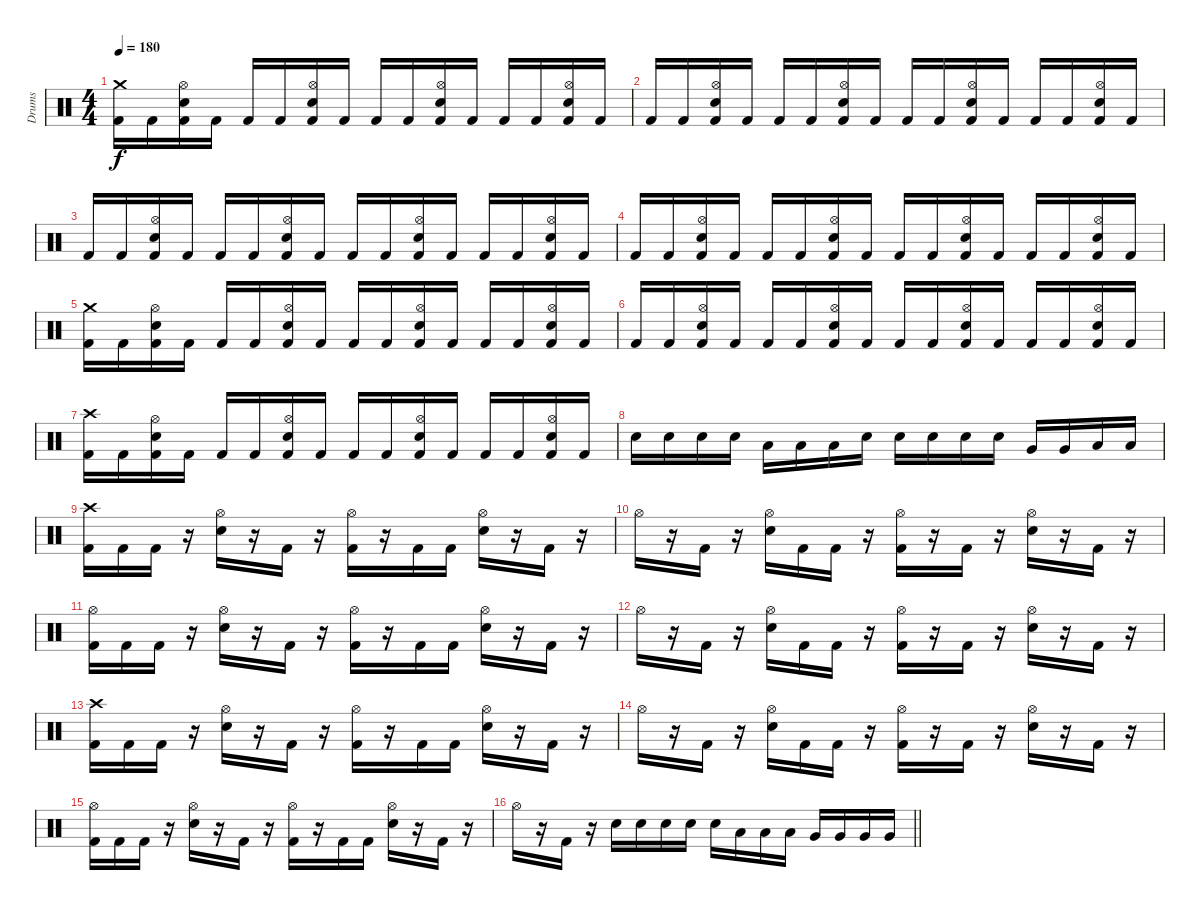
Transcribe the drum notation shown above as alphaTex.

\track ("Drums" "Drums") {instrument percussion}
\staff {score}
\articulation defaults
\ts (4 4)
\tempo 180
\clef neutral
\ks c
("Crash medium (hit)" "Kick (hit) 2").16{dy f} "Kick (hit) 2".16 ("Hi-Hat (open)" "Electric Snare (hit)" "Kick (hit) 2").16 "Kick (hit) 2".16 "Kick (hit) 2".16 "Kick (hit) 2".16 ("Hi-Hat (open)" "Electric Snare (hit)" "Kick (hit) 2").16 "Kick (hit) 2".16 "Kick (hit) 2".16 "Kick (hit) 2".16 ("Hi-Hat (open)" "Electric Snare (hit)" "Kick (hit) 2").16 "Kick (hit) 2".16 "Kick (hit) 2".16 "Kick (hit) 2".16 ("Hi-Hat (open)" "Electric Snare (hit)" "Kick (hit) 2").16 "Kick (hit) 2".16 |
"Kick (hit) 2".16 "Kick (hit) 2".16 ("Hi-Hat (open)" "Electric Snare (hit)" "Kick (hit) 2").16 "Kick (hit) 2".16 "Kick (hit) 2".16 "Kick (hit) 2".16 ("Hi-Hat (open)" "Electric Snare (hit)" "Kick (hit) 2").16 "Kick (hit) 2".16 "Kick (hit) 2".16 "Kick (hit) 2".16 ("Hi-Hat (open)" "Electric Snare (hit)" "Kick (hit) 2").16 "Kick (hit) 2".16 "Kick (hit) 2".16 "Kick (hit) 2".16 ("Hi-Hat (open)" "Electric Snare (hit)" "Kick (hit) 2").16 "Kick (hit) 2".16 |
"Kick (hit) 2".16 "Kick (hit) 2".16 ("Hi-Hat (open)" "Electric Snare (hit)" "Kick (hit) 2").16 "Kick (hit) 2".16 "Kick (hit) 2".16 "Kick (hit) 2".16 ("Hi-Hat (open)" "Electric Snare (hit)" "Kick (hit) 2").16 "Kick (hit) 2".16 "Kick (hit) 2".16 "Kick (hit) 2".16 ("Hi-Hat (open)" "Electric Snare (hit)" "Kick (hit) 2").16 "Kick (hit) 2".16 "Kick (hit) 2".16 "Kick (hit) 2".16 ("Hi-Hat (open)" "Electric Snare (hit)" "Kick (hit) 2").16 "Kick (hit) 2".16 |
"Kick (hit) 2".16 "Kick (hit) 2".16 ("Hi-Hat (open)" "Electric Snare (hit)" "Kick (hit) 2").16 "Kick (hit) 2".16 "Kick (hit) 2".16 "Kick (hit) 2".16 ("Hi-Hat (open)" "Electric Snare (hit)" "Kick (hit) 2").16 "Kick (hit) 2".16 "Kick (hit) 2".16 "Kick (hit) 2".16 ("Hi-Hat (open)" "Electric Snare (hit)" "Kick (hit) 2").16 "Kick (hit) 2".16 "Kick (hit) 2".16 "Kick (hit) 2".16 ("Hi-Hat (open)" "Electric Snare (hit)" "Kick (hit) 2").16 "Kick (hit) 2".16 |
("Crash medium (hit)" "Kick (hit) 2").16 "Kick (hit) 2".16 ("Hi-Hat (open)" "Electric Snare (hit)" "Kick (hit) 2").16 "Kick (hit) 2".16 "Kick (hit) 2".16 "Kick (hit) 2".16 ("Hi-Hat (open)" "Electric Snare (hit)" "Kick (hit) 2").16 "Kick (hit) 2".16 "Kick (hit) 2".16 "Kick (hit) 2".16 ("Hi-Hat (open)" "Electric Snare (hit)" "Kick (hit) 2").16 "Kick (hit) 2".16 "Kick (hit) 2".16 "Kick (hit) 2".16 ("Hi-Hat (open)" "Electric Snare (hit)" "Kick (hit) 2").16 "Kick (hit) 2".16 |
"Kick (hit) 2".16 "Kick (hit) 2".16 ("Hi-Hat (open)" "Electric Snare (hit)" "Kick (hit) 2").16 "Kick (hit) 2".16 "Kick (hit) 2".16 "Kick (hit) 2".16 ("Hi-Hat (open)" "Electric Snare (hit)" "Kick (hit) 2").16 "Kick (hit) 2".16 "Kick (hit) 2".16 "Kick (hit) 2".16 ("Hi-Hat (open)" "Electric Snare (hit)" "Kick (hit) 2").16 "Kick (hit) 2".16 "Kick (hit) 2".16 "Kick (hit) 2".16 ("Hi-Hat (open)" "Electric Snare (hit)" "Kick (hit) 2").16 "Kick (hit) 2".16 |
("Crash high (hit)" "Kick (hit) 2").16 "Kick (hit) 2".16 ("Hi-Hat (open)" "Electric Snare (hit)" "Kick (hit) 2").16 "Kick (hit) 2".16 "Kick (hit) 2".16 "Kick (hit) 2".16 ("Hi-Hat (open)" "Electric Snare (hit)" "Kick (hit) 2").16 "Kick (hit) 2".16 "Kick (hit) 2".16 "Kick (hit) 2".16 ("Hi-Hat (open)" "Electric Snare (hit)" "Kick (hit) 2").16 "Kick (hit) 2".16 "Kick (hit) 2".16 "Kick (hit) 2".16 ("Hi-Hat (open)" "Electric Snare (hit)" "Kick (hit) 2").16 "Kick (hit) 2".16 |
"Electric Snare (hit)".16 "Electric Snare (hit)".16 "Electric Snare (hit)".16 "Electric Snare (hit)".16 "Low Tom (hit)".16 "Low Tom (hit)".16 "Low Tom (hit)".16 "Electric Snare (hit)".16 "Electric Snare (hit)".16 "Electric Snare (hit)".16 "Electric Snare (hit)".16 "Electric Snare (hit)".16 "Very Low Tom (hit)".16 "Very Low Tom (hit)".16 "Low Floor Tom (hit)".16 "Low Floor Tom (hit)".16 |
("Crash high (hit)" "Kick (hit) 2").16 "Kick (hit) 2".16 "Kick (hit) 2".16 r.16 ("Hi-Hat (open)" "Electric Snare (hit)").16 r.16 "Kick (hit) 2".16 r.16 ("Hi-Hat (open)" "Kick (hit) 2").16 r.16 "Kick (hit) 2".16 "Kick (hit) 2".16 ("Hi-Hat (open)" "Electric Snare (hit)").16 r.16 "Kick (hit) 2".16 r.16 |
"Hi-Hat (open)".16 r.16 "Kick (hit) 2".16 r.16 ("Hi-Hat (open)" "Electric Snare (hit)").16 "Kick (hit) 2".16 "Kick (hit) 2".16 r.16 ("Hi-Hat (open)" "Kick (hit) 2").16 r.16 "Kick (hit) 2".16 r.16 ("Hi-Hat (open)" "Electric Snare (hit)").16 r.16 "Kick (hit) 2".16 r.16 |
("Hi-Hat (open)" "Kick (hit) 2").16 "Kick (hit) 2".16 "Kick (hit) 2".16 r.16 ("Hi-Hat (open)" "Electric Snare (hit)").16 r.16 "Kick (hit) 2".16 r.16 ("Hi-Hat (open)" "Kick (hit) 2").16 r.16 "Kick (hit) 2".16 "Kick (hit) 2".16 ("Hi-Hat (open)" "Electric Snare (hit)").16 r.16 "Kick (hit) 2".16 r.16 |
"Hi-Hat (open)".16 r.16 "Kick (hit) 2".16 r.16 ("Hi-Hat (open)" "Electric Snare (hit)").16 "Kick (hit) 2".16 "Kick (hit) 2".16 r.16 ("Hi-Hat (open)" "Kick (hit) 2").16 r.16 "Kick (hit) 2".16 r.16 ("Hi-Hat (open)" "Electric Snare (hit)").16 r.16 "Kick (hit) 2".16 r.16 |
("Crash high (hit)" "Kick (hit) 2").16 "Kick (hit) 2".16 "Kick (hit) 2".16 r.16 ("Hi-Hat (open)" "Electric Snare (hit)").16 r.16 "Kick (hit) 2".16 r.16 ("Hi-Hat (open)" "Kick (hit) 2").16 r.16 "Kick (hit) 2".16 "Kick (hit) 2".16 ("Hi-Hat (open)" "Electric Snare (hit)").16 r.16 "Kick (hit) 2".16 r.16 |
"Hi-Hat (open)".16 r.16 "Kick (hit) 2".16 r.16 ("Hi-Hat (open)" "Electric Snare (hit)").16 "Kick (hit) 2".16 "Kick (hit) 2".16 r.16 ("Hi-Hat (open)" "Kick (hit) 2").16 r.16 "Kick (hit) 2".16 r.16 ("Hi-Hat (open)" "Electric Snare (hit)").16 r.16 "Kick (hit) 2".16 r.16 |
("Hi-Hat (open)" "Kick (hit) 2").16 "Kick (hit) 2".16 "Kick (hit) 2".16 r.16 ("Hi-Hat (open)" "Electric Snare (hit)").16 r.16 "Kick (hit) 2".16 r.16 ("Hi-Hat (open)" "Kick (hit) 2").16 r.16 "Kick (hit) 2".16 "Kick (hit) 2".16 ("Hi-Hat (open)" "Electric Snare (hit)").16 r.16 "Kick (hit) 2".16 r.16 |
\barLineRight lightlight "Hi-Hat (open)".16
r.16 "Kick (hit) 2".16 r.16 "Electric Snare (hit)".16 "Electric Snare (hit)".16 "Electric Snare (hit)".16 "Electric Snare (hit)".16 "Electric Snare (hit)".16 "Low Tom (hit)".16 "Low Tom (hit)".16 "Low Tom (hit)".16 "Very Low Tom (hit)".16 "Very Low Tom (hit)".16 "Very Low Tom (hit)".16 "Very Low Tom (hit)".16
